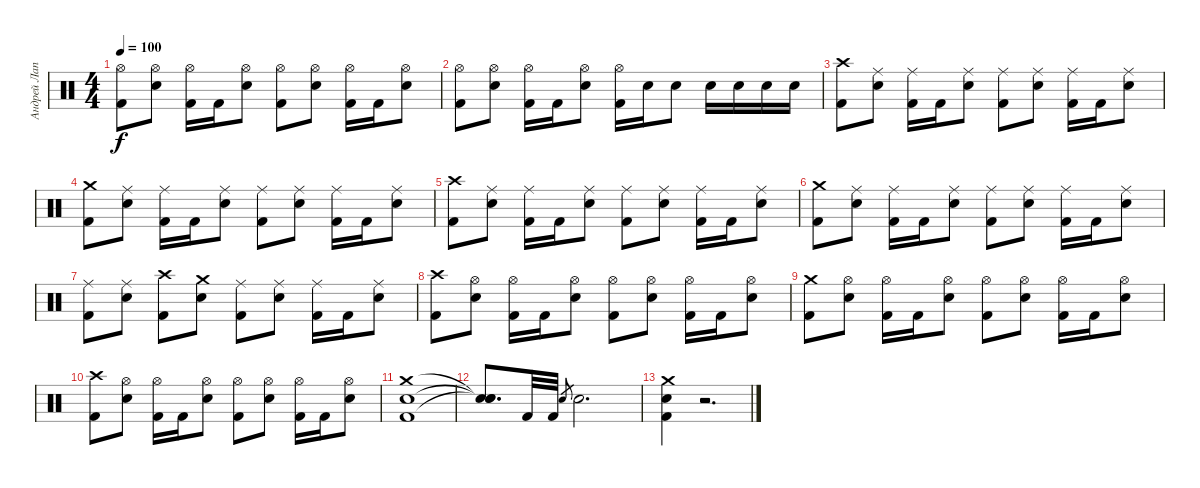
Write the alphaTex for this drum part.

\track ("Андрей Лаптев" "Андрей Лап") {instrument percussion}
\staff {score}
\articulation defaults
\ts (4 4)
\tempo 100
\clef neutral
\ks c
("Hi-Hat (open)" "Kick (hit) 2").8{dy f} ("Hi-Hat (open)" "Snare (hit) 2").8 ("Hi-Hat (open)" "Kick (hit) 2").16 "Kick (hit) 2".16 ("Hi-Hat (open)" "Snare (hit) 2").8 ("Hi-Hat (open)" "Kick (hit) 2").8 ("Hi-Hat (open)" "Snare (hit) 2").8 ("Hi-Hat (open)" "Kick (hit) 2").16 "Kick (hit) 2".16 ("Hi-Hat (open)" "Snare (hit) 2").8 |
("Hi-Hat (open)" "Kick (hit) 2").8 ("Hi-Hat (open)" "Snare (hit) 2").8 ("Hi-Hat (open)" "Kick (hit) 2").16 "Kick (hit) 2".16 ("Hi-Hat (open)" "Snare (hit) 2").8 ("Hi-Hat (open)" "Kick (hit) 2").16 "Snare (hit) 2".16 "Snare (hit) 2".8 "Snare (hit) 2".16 "Snare (hit) 2".16 "Snare (hit) 2".16 "Snare (hit) 2".16 |
("Crash high (hit)" "Kick (hit) 2").8 ("Ride (middle)" "Snare (hit) 2").8 ("Ride (middle)" "Kick (hit) 2").16 "Kick (hit) 2".16 ("Ride (middle)" "Snare (hit) 2").8 ("Ride (middle)" "Kick (hit) 2").8 ("Ride (middle)" "Snare (hit) 2").8 ("Ride (middle)" "Kick (hit) 2").16 "Kick (hit) 2".16 ("Ride (middle)" "Snare (hit) 2").8 |
("Crash medium (hit)" "Kick (hit) 2").8 ("Ride (middle)" "Snare (hit) 2").8 ("Ride (middle)" "Kick (hit) 2").16 "Kick (hit) 2".16 ("Ride (middle)" "Snare (hit) 2").8 ("Ride (middle)" "Kick (hit) 2").8 ("Ride (middle)" "Snare (hit) 2").8 ("Ride (middle)" "Kick (hit) 2").16 "Kick (hit) 2".16 ("Ride (middle)" "Snare (hit) 2").8 |
("Crash high (hit)" "Kick (hit) 2").8 ("Ride (middle)" "Snare (hit) 2").8 ("Ride (middle)" "Kick (hit) 2").16 "Kick (hit) 2".16 ("Ride (middle)" "Snare (hit) 2").8 ("Ride (middle)" "Kick (hit) 2").8 ("Ride (middle)" "Snare (hit) 2").8 ("Ride (middle)" "Kick (hit) 2").16 "Kick (hit) 2".16 ("Ride (middle)" "Snare (hit) 2").8 |
("Crash medium (hit)" "Kick (hit) 2").8 ("Ride (middle)" "Snare (hit) 2").8 ("Ride (middle)" "Kick (hit) 2").16 "Kick (hit) 2".16 ("Ride (middle)" "Snare (hit) 2").8 ("Ride (middle)" "Kick (hit) 2").8 ("Ride (middle)" "Snare (hit) 2").8 ("Ride (middle)" "Kick (hit) 2").16 "Kick (hit) 2".16 ("Ride (middle)" "Snare (hit) 2").8 |
("Ride (middle)" "Kick (hit) 2").8 ("Ride (middle)" "Snare (hit) 2").8 ("Crash high (hit)" "Kick (hit) 2").8 ("Crash medium (hit)" "Snare (hit) 2").8 ("Ride (middle)" "Kick (hit) 2").8 ("Ride (middle)" "Snare (hit) 2").8 ("Ride (middle)" "Kick (hit) 2").16 "Kick (hit) 2".16 ("Ride (middle)" "Snare (hit) 2").8 |
("Crash high (hit)" "Kick (hit) 2").8 ("Hi-Hat (open)" "Snare (hit) 2").8 ("Hi-Hat (open)" "Kick (hit) 2").16 "Kick (hit) 2".16 ("Hi-Hat (open)" "Snare (hit) 2").8 ("Hi-Hat (open)" "Kick (hit) 2").8 ("Hi-Hat (open)" "Snare (hit) 2").8 ("Hi-Hat (open)" "Kick (hit) 2").16 "Kick (hit) 2".16 ("Hi-Hat (open)" "Snare (hit) 2").8 |
("Crash medium (hit)" "Kick (hit) 2").8 ("Hi-Hat (open)" "Snare (hit) 2").8 ("Hi-Hat (open)" "Kick (hit) 2").16 "Kick (hit) 2".16 ("Hi-Hat (open)" "Snare (hit) 2").8 ("Hi-Hat (open)" "Kick (hit) 2").8 ("Hi-Hat (open)" "Snare (hit) 2").8 ("Hi-Hat (open)" "Kick (hit) 2").16 "Kick (hit) 2".16 ("Hi-Hat (open)" "Snare (hit) 2").8 |
("Crash high (hit)" "Kick (hit) 2").8 ("Hi-Hat (open)" "Snare (hit) 2").8 ("Hi-Hat (open)" "Kick (hit) 2").16 "Kick (hit) 2".16 ("Hi-Hat (open)" "Snare (hit) 2").8 ("Hi-Hat (open)" "Kick (hit) 2").8 ("Hi-Hat (open)" "Snare (hit) 2").8 ("Hi-Hat (open)" "Kick (hit) 2").16 "Kick (hit) 2".16 ("Hi-Hat (open)" "Snare (hit) 2").8 |
("Crash medium (hit)" "Snare (hit) 2" "Kick (hit) 2").1 |
("Snare (hit)"{t} "Snare (hit)"{t} "Snare (hit)"{t}).8{d} "Kick (hit) 2".32 "Kick (hit) 2".32 "Snare (hit) 2".8{gr} "Snare (hit) 2".2{d} |
("Crash medium (hit)" "Snare (hit) 2" "Kick (hit) 2").4 r.2{d}
